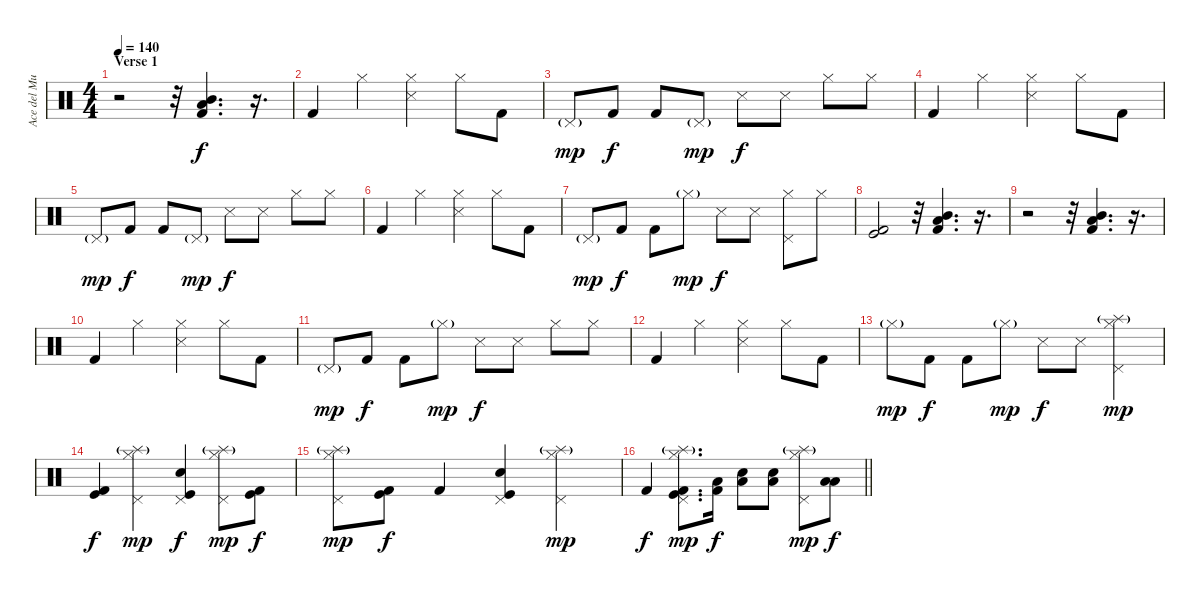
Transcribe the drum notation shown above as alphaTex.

\track ("Ace del Mundo(Drums)" "Ace del Mu") {instrument percussion}
\staff {score}
\articulation defaults
\ts (4 4)
\section ("" "Verse 1")
\tempo 140
\clef neutral
\ks c
r.2{dy f} r.32 ("Mid Tom (hit)" "Low Tom (hit)" "Kick (hit) 2").4{d bd 60} r.16{d} |
"Kick (hit) 2".4 "Hi-Hat (closed)".4 ("Hi-Hat (closed)" "Snare (side stick) 3").4 "Hi-Hat (closed)".8 "Kick (hit) 2".8 |
"Pedal Hi-Hat (hit)"{g}.8{dy mp} "Kick (hit) 2".8{dy f} "Kick (hit) 2".8 "Pedal Hi-Hat (hit)"{g}.8{dy mp} "Snare (side stick) 3".8{dy f} "Snare (side stick) 3".8 "Hi-Hat (closed)".8 "Hi-Hat (closed)".8 |
"Kick (hit) 2".4 "Hi-Hat (closed)".4 ("Hi-Hat (closed)" "Snare (side stick) 3").4 "Hi-Hat (closed)".8 "Kick (hit) 2".8 |
"Pedal Hi-Hat (hit)"{g}.8{dy mp} "Kick (hit) 2".8{dy f} "Kick (hit) 2".8 "Pedal Hi-Hat (hit)"{g}.8{dy mp} "Snare (side stick) 3".8{dy f} "Snare (side stick) 3".8 "Hi-Hat (closed)".8 "Hi-Hat (closed)".8 |
"Kick (hit) 2".4 "Hi-Hat (closed)".4 ("Hi-Hat (closed)" "Snare (side stick) 3").4 "Hi-Hat (closed)".8 "Kick (hit) 2".8 |
"Pedal Hi-Hat (hit)"{g}.8{dy mp} "Kick (hit) 2".8{dy f} "Kick (hit) 2".8 "Hi-Hat (closed)"{g}.8{dy mp} "Snare (side stick) 3".8{dy f} "Snare (side stick) 3".8 ("Hi-Hat (closed)" "Pedal Hi-Hat (hit)").8 "Hi-Hat (closed)".8 |
("Kick (hit) 2" "Kick (hit)").2 r.32 ("Mid Tom (hit)" "Low Tom (hit)" "Kick (hit) 2").4{d bd 60} r.16{d} |
r.2 r.32 ("Mid Tom (hit)" "Low Tom (hit)" "Kick (hit) 2").4{d bd 60} r.16{d} |
"Kick (hit) 2".4 "Hi-Hat (closed)".4 ("Hi-Hat (closed)" "Snare (side stick) 3").4 "Hi-Hat (closed)".8 "Kick (hit) 2".8 |
"Pedal Hi-Hat (hit)"{g}.8{dy mp} "Kick (hit) 2".8{dy f} "Kick (hit) 2".8 "Hi-Hat (closed)"{g}.8{dy mp} "Snare (side stick) 3".8{dy f} "Snare (side stick) 3".8 "Hi-Hat (closed)".8 "Hi-Hat (closed)".8 |
"Kick (hit) 2".4 "Hi-Hat (closed)".4 ("Hi-Hat (closed)" "Snare (side stick) 3").4 "Hi-Hat (closed)".8 "Kick (hit) 2".8 |
"Hi-Hat (closed)"{g}.8{dy mp} "Kick (hit) 2".8{dy f} "Kick (hit) 2".8 "Hi-Hat (closed)"{g}.8{dy mp} "Snare (side stick) 3".8{dy f} "Snare (side stick) 3".8 ("Hi-Hat (closed)" "Pedal Hi-Hat (hit)" "Splash (hit)"{g}).4{dy mp} |
("Kick (hit) 2" "Kick (hit)").4{dy f} ("Hi-Hat (closed)" "Pedal Hi-Hat (hit)" "Splash (hit)"{g}).4{dy mp} ("Pedal Hi-Hat (hit)" "Electric Snare (hit)" "Kick (hit)").4{dy f} ("Hi-Hat (closed)" "Pedal Hi-Hat (hit)" "Splash (hit)"{g}).8{dy mp} ("Kick (hit) 2" "Kick (hit)").8{dy f} |
("Hi-Hat (closed)" "Pedal Hi-Hat (hit)" "Splash (hit)"{g}).8{dy mp} ("Kick (hit) 2" "Kick (hit)").8{dy f} "Kick (hit) 2".4 ("Pedal Hi-Hat (hit)" "Electric Snare (hit)" "Kick (hit)").4 ("Hi-Hat (closed)" "Pedal Hi-Hat (hit)" "Splash (hit)"{g}).4{dy mp} |
\barLineRight lightlight "Kick (hit) 2".4{dy f}
("Kick (hit) 2" "Kick (hit)" "Pedal Hi-Hat (hit)" "Hi-Hat (closed)" "Splash (hit)"{g}).8{d dy mp} ("Low Tom (hit)" "Kick (hit) 2").16{dy f} ("Electric Snare (hit)" "Low Tom (hit)").8 ("Electric Snare (hit)" "Low Tom (hit)").8 ("Hi-Hat (closed)" "Pedal Hi-Hat (hit)" "Splash (hit)"{g}).8{dy mp} ("Low Tom (hit)" "Low Tom (hit)").8{dy f}
